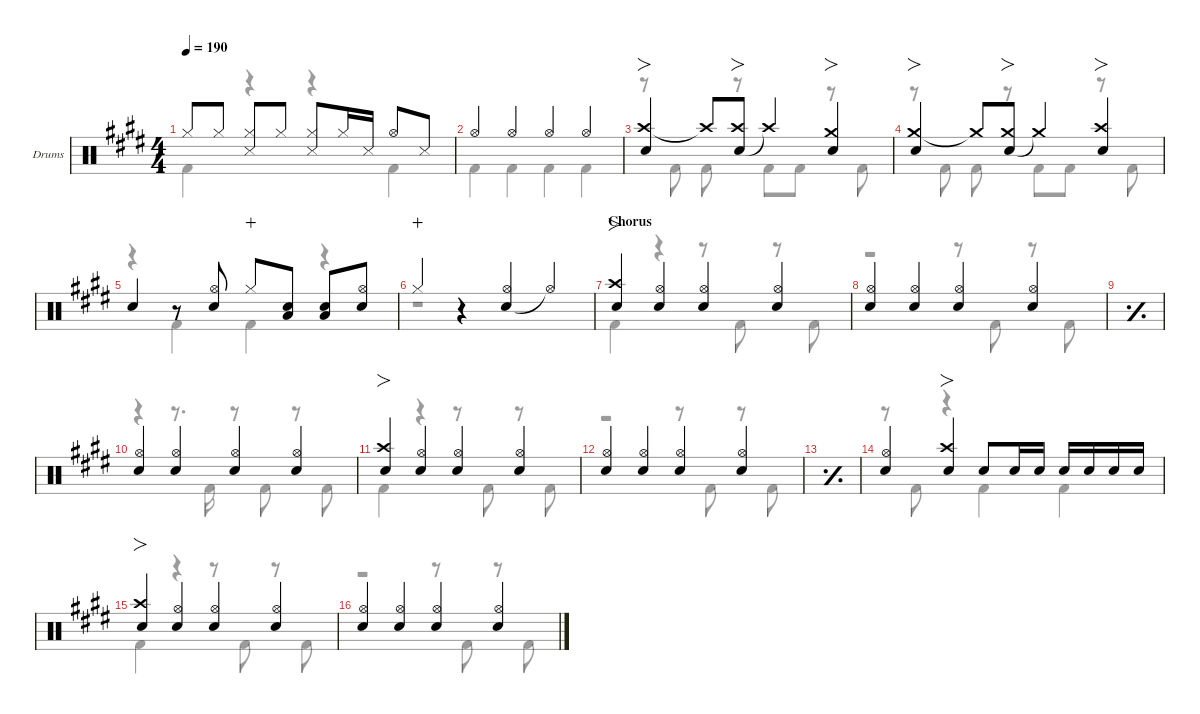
\defaultSystemsLayout 4
\hideDynamics
\bracketExtendMode nobrackets
\firstSystemTrackNameOrientation horizontal
\track ("Drums" "Drums") {defaultSystemsLayout 4 instrument percussion}
\staff {score}
\articulation defaults
\voice
\ts (4 4)
\tempo 190
\clef neutral
\ks e "Hi-Hat (closed)"{acc forcenatural}.8{dy f} "Hi-Hat (closed)"{acc forcenatural}.8{dy mf}
("Snare (side stick) 3"{acc forcenatural} "Hi-Hat (closed)"{acc forcenatural}).8{dy f} "Hi-Hat (closed)"{acc forcenatural}.8{dy mf} ("Hi-Hat (closed)"{acc forcenatural} "Snare (side stick) 3"{acc forcenatural}).8{dy f} "Hi-Hat (closed)"{acc forcenatural}.16{dy mf} "Snare (side stick) 3"{acc forcenatural}.16{dy f beam split} "Hi-Hat (open)"{acc forcenatural}.8 "Snare (side stick) 3"{acc forcenatural}.8 |
"Hi-Hat (open)"{acc forcenatural}.4 "Hi-Hat (open)"{acc forcenatural}.4 "Hi-Hat (open)"{acc forcenatural}.4 "Hi-Hat (open)"{acc forcenatural}.4 |
("Crash high (hit)"{acc forcenatural} "Snare (hit) 2"{acc forcenatural}).4{fo} "Crash high (hit)"{t acc forcenatural}.8 ("Snare (hit) 2"{acc forcenatural} "Crash high (hit)"{acc forcenatural}).8{fo} "Crash high (hit)"{t acc forcenatural}.4 ("Snare (hit) 2"{acc forcenatural} "Crash medium (hit)"{acc forcenatural}).4{fo} |
("Crash medium (hit)"{acc forcenatural} "Snare (hit) 2"{acc forcenatural}).4{fo} "Crash medium (hit)"{t acc forcenatural}.8 ("Snare (hit) 2"{acc forcenatural} "Crash medium (hit)"{acc forcenatural}).8{fo} "Crash medium (hit)"{t acc forcenatural}.4 ("Snare (hit) 2"{acc forcenatural} "Crash high (hit)"{acc forcenatural}).4{fo} |
"Snare (hit) 2"{acc forcenatural}.4 r.8 ("Snare (hit) 2"{acc forcenatural} "Hi-Hat (open)"{acc forcenatural}).8 "Hi-Hat (closed)"{acc forcenatural}.8{dy mp wahc} ("Snare (hit) 2"{acc forcenatural} "Low Tom (hit)"{acc forcenatural}).8{dy f} ("Snare (hit) 2"{acc forcenatural} "Low Tom (hit)"{acc forcenatural}).8 ("Hi-Hat (open)"{acc forcenatural} "Snare (hit) 2"{acc forcenatural}).8 |
"Hi-Hat (closed)"{acc forcenatural}.4{dy mp wahc} r.4 ("Snare (hit) 2"{acc forcenatural} "Hi-Hat (open)"{acc forcenatural}).4{dy f} "Hi-Hat (open)"{t acc forcenatural}.4 |
\section ("" "Chorus")
("Crash high (hit)"{acc forcenatural} "Snare (hit) 2"{acc forcenatural}).4{fo} ("Snare (hit) 2"{acc forcenatural} "Hi-Hat (open)"{acc forcenatural}).4 ("Snare (hit) 2"{acc forcenatural} "Hi-Hat (open)"{acc forcenatural}).4 ("Snare (hit) 2"{acc forcenatural} "Hi-Hat (open)"{acc forcenatural}).4 |
("Snare (hit) 2"{acc forcenatural} "Hi-Hat (open)"{acc forcenatural}).4 ("Snare (hit) 2"{acc forcenatural} "Hi-Hat (open)"{acc forcenatural}).4 ("Snare (hit) 2"{acc forcenatural} "Hi-Hat (open)"{acc forcenatural}).4 ("Snare (hit) 2"{acc forcenatural} "Hi-Hat (open)"{acc forcenatural}).4 |
\simile simple
|
\simile none
("Snare (hit) 2"{acc forcenatural} "Hi-Hat (open)"{acc forcenatural}).4 ("Snare (hit) 2"{acc forcenatural} "Hi-Hat (open)"{acc forcenatural}).4 ("Snare (hit) 2"{acc forcenatural} "Hi-Hat (open)"{acc forcenatural}).4 ("Snare (hit) 2"{acc forcenatural} "Hi-Hat (open)"{acc forcenatural}).4 |
("Crash high (hit)"{acc forcenatural} "Snare (hit) 2"{acc forcenatural}).4{fo} ("Snare (hit) 2"{acc forcenatural} "Hi-Hat (open)"{acc forcenatural}).4 ("Snare (hit) 2"{acc forcenatural} "Hi-Hat (open)"{acc forcenatural}).4 ("Snare (hit) 2"{acc forcenatural} "Hi-Hat (open)"{acc forcenatural}).4 |
("Snare (hit) 2"{acc forcenatural} "Hi-Hat (open)"{acc forcenatural}).4 ("Snare (hit) 2"{acc forcenatural} "Hi-Hat (open)"{acc forcenatural}).4 ("Snare (hit) 2"{acc forcenatural} "Hi-Hat (open)"{acc forcenatural}).4 ("Snare (hit) 2"{acc forcenatural} "Hi-Hat (open)"{acc forcenatural}).4 |
\simile simple
|
\simile none
("Hi-Hat (open)"{acc forcenatural} "Snare (hit) 2"{acc forcenatural}).4 ("Snare (hit) 2"{acc forcenatural} "Crash high (hit)"{acc forcenatural}).4{fo} "Snare (hit) 2"{acc forcenatural}.8 "Snare (hit) 2"{acc forcenatural}.16 "Snare (hit) 2"{acc forcenatural}.16{dy mf beam split} "Snare (hit) 2"{acc forcenatural}.16{dy f} "Snare (hit) 2"{acc forcenatural}.16{dy mf beam merge} "Snare (hit) 2"{acc forcenatural}.16{dy f} "Snare (hit) 2"{acc forcenatural}.16{dy mf beam split} |
("Crash high (hit)"{acc forcenatural} "Snare (hit) 2"{acc forcenatural}).4{fo dy f} ("Snare (hit) 2"{acc forcenatural} "Hi-Hat (open)"{acc forcenatural}).4 ("Snare (hit) 2"{acc forcenatural} "Hi-Hat (open)"{acc forcenatural}).4 ("Snare (hit) 2"{acc forcenatural} "Hi-Hat (open)"{acc forcenatural}).4 |
("Snare (hit) 2"{acc forcenatural} "Hi-Hat (open)"{acc forcenatural}).4 ("Snare (hit) 2"{acc forcenatural} "Hi-Hat (open)"{acc forcenatural}).4 ("Snare (hit) 2"{acc forcenatural} "Hi-Hat (open)"{acc forcenatural}).4 ("Snare (hit) 2"{acc forcenatural} "Hi-Hat (open)"{acc forcenatural}).4
\voice
\clef neutral
\ottava regular
\simile none
\ks e "Kick (hit) 2"{acc forcenatural}.4{dy f}
r.4 r.4 "Kick (hit) 2"{acc forcenatural}.4 |
"Kick (hit) 2"{acc forcenatural}.4 "Kick (hit) 2"{acc forcenatural}.4 "Kick (hit) 2"{acc forcenatural}.4 "Kick (hit) 2"{acc forcenatural}.4 |
r.8 "Kick (hit) 2"{acc forcenatural}.8 "Kick (hit) 2"{acc forcenatural}.8 r.8 "Kick (hit) 2"{acc forcenatural}.8 "Kick (hit) 2"{acc forcenatural}.8 r.8 "Kick (hit) 2"{acc forcenatural}.8 |
r.8 "Kick (hit) 2"{acc forcenatural}.8 "Kick (hit) 2"{acc forcenatural}.8 r.8 "Kick (hit) 2"{acc forcenatural}.8 "Kick (hit) 2"{acc forcenatural}.8 r.8 "Kick (hit) 2"{acc forcenatural}.8 |
r.4 "Kick (hit) 2"{acc forcenatural}.4 "Kick (hit) 2"{acc forcenatural}.4 r.4 |
r.1 |
"Kick (hit) 2"{acc forcenatural}.4 r.4 r.8 "Kick (hit) 2"{acc forcenatural}.8 r.8 "Kick (hit) 2"{acc forcenatural}.8 |
r.2 r.8 "Kick (hit) 2"{acc forcenatural}.8 r.8 "Kick (hit) 2"{acc forcenatural}.8 |
\simile simple
|
\simile none
r.4 r.8{d} "Kick (hit) 2"{acc forcenatural}.16 r.8 "Kick (hit) 2"{acc forcenatural}.8 r.8 "Kick (hit) 2"{acc forcenatural}.8 |
"Kick (hit) 2"{acc forcenatural}.4 r.4 r.8 "Kick (hit) 2"{acc forcenatural}.8 r.8 "Kick (hit) 2"{acc forcenatural}.8 |
r.2 r.8 "Kick (hit) 2"{acc forcenatural}.8 r.8 "Kick (hit) 2"{acc forcenatural}.8 |
\simile simple
|
\simile none
r.8 "Kick (hit) 2"{acc forcenatural}.8 r.4 "Kick (hit) 2"{acc forcenatural}.4 "Kick (hit) 2"{acc forcenatural}.4 |
"Kick (hit) 2"{acc forcenatural}.4 r.4 r.8 "Kick (hit) 2"{acc forcenatural}.8 r.8 "Kick (hit) 2"{acc forcenatural}.8 |
r.2 r.8 "Kick (hit) 2"{acc forcenatural}.8 r.8 "Kick (hit) 2"{acc forcenatural}.8
